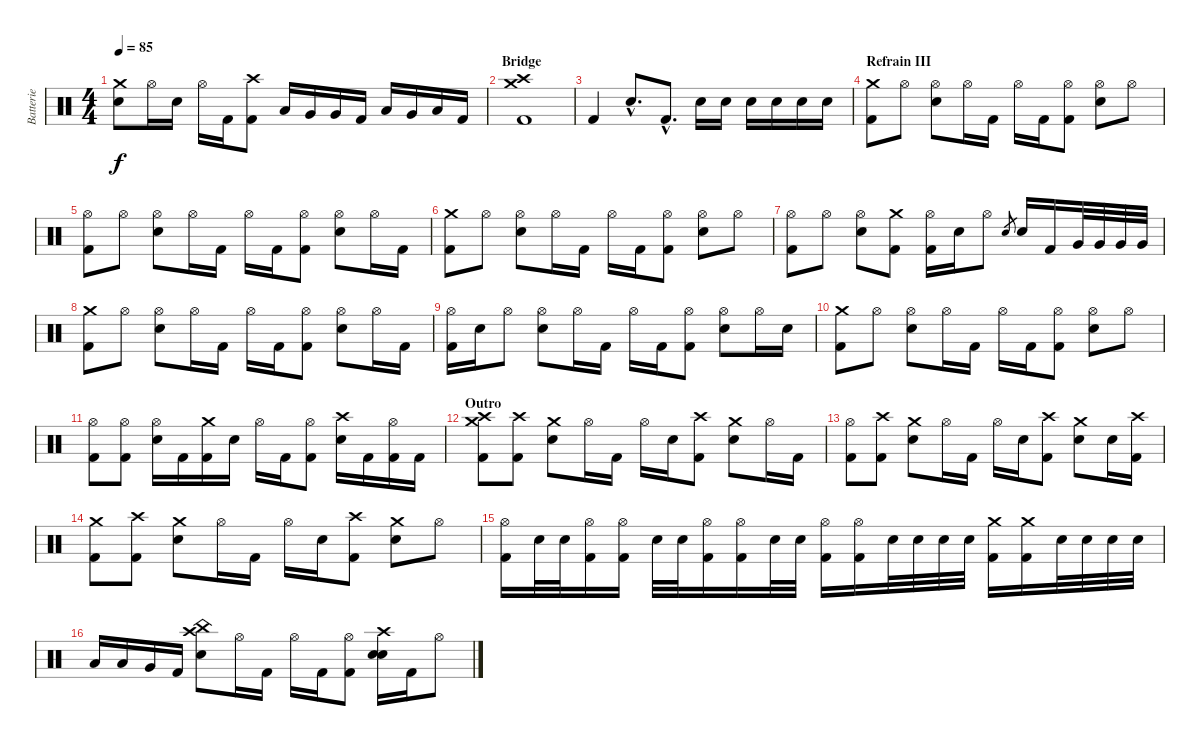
\track ("Batterie" "Batterie") {instrument percussion}
\staff {score}
\articulation defaults
\ts (4 4)
\tempo 85
\clef neutral
\ks c
("Crash medium (hit)" "Electric Snare (hit)").8{dy f} "Hi-Hat (open)".16 "Electric Snare (hit)".16 "Hi-Hat (open)".16 "Kick (hit) 2".16 ("Crash high (hit)" "Kick (hit) 2").8 "Low Tom (hit)".16 "Very Low Tom (hit)".16 "Very Low Tom (hit)".16 "Kick (hit) 2".16 "Low Tom (hit)".16 "Very Low Tom (hit)".16 "Low Floor Tom (hit)".16 "Kick (hit) 2".16 |
\section ("" "Bridge")
("Crash medium (hit)" "Crash high (hit)" "Kick (hit) 2").1 |
"Kick (hit) 2".4{volume 5} "Electric Snare (hit)"{hac}.8{d} "Kick (hit) 2"{hac}.8{d} "Electric Snare (hit)".16{volume 13} "Electric Snare (hit)".16 "Electric Snare (hit)".16 "Electric Snare (hit)".16 "Electric Snare (hit)".16 "Electric Snare (hit)".16 |
\section ("" "Refrain III")
("Crash medium (hit)" "Kick (hit) 2").8{volume 13} "Hi-Hat (open)".8 ("Hi-Hat (open)" "Electric Snare (hit)").8 "Hi-Hat (open)".16 "Kick (hit) 2".16 "Hi-Hat (open)".16 "Kick (hit) 2".16 ("Hi-Hat (open)" "Kick (hit) 2").8 ("Hi-Hat (open)" "Electric Snare (hit)").8 "Hi-Hat (open)".8 |
("Hi-Hat (open)" "Kick (hit) 2").8 "Hi-Hat (open)".8 ("Hi-Hat (open)" "Electric Snare (hit)").8 "Hi-Hat (open)".16 "Kick (hit) 2".16 "Hi-Hat (open)".16 "Kick (hit) 2".16 ("Hi-Hat (open)" "Kick (hit) 2").8 ("Hi-Hat (open)" "Electric Snare (hit)").8 "Hi-Hat (open)".16 "Kick (hit) 2".16 |
("Crash medium (hit)" "Kick (hit) 2").8 "Hi-Hat (open)".8 ("Hi-Hat (open)" "Electric Snare (hit)").8 "Hi-Hat (open)".16 "Kick (hit) 2".16 "Hi-Hat (open)".16 "Kick (hit) 2".16 ("Hi-Hat (open)" "Kick (hit) 2").8 ("Hi-Hat (open)" "Electric Snare (hit)").8 "Hi-Hat (open)".8 |
("Hi-Hat (open)" "Kick (hit) 2").8 "Hi-Hat (open)".8 ("Hi-Hat (open)" "Electric Snare (hit)").8 ("Crash medium (hit)" "Kick (hit) 2").8 ("Hi-Hat (open)" "Kick (hit) 2").16 "Electric Snare (hit)".16 "Hi-Hat (open)".8 "Electric Snare (hit)".8{gr} "Electric Snare (hit)".16 "Kick (hit) 2".16 "Very Low Tom (hit)".32 "Very Low Tom (hit)".32 "Very Low Tom (hit)".32 "Very Low Tom (hit)".32 |
("Crash medium (hit)" "Kick (hit) 2").8 "Hi-Hat (open)".8 ("Hi-Hat (open)" "Electric Snare (hit)").8 "Hi-Hat (open)".16 "Kick (hit) 2".16 "Hi-Hat (open)".16 "Kick (hit) 2".16 ("Hi-Hat (open)" "Kick (hit) 2").8 ("Hi-Hat (open)" "Electric Snare (hit)").8 "Hi-Hat (open)".16 "Kick (hit) 2".16 |
("Hi-Hat (open)" "Kick (hit) 2").16 "Electric Snare (hit)".16 "Hi-Hat (open)".8 ("Hi-Hat (open)" "Electric Snare (hit)").8 "Hi-Hat (open)".16 "Kick (hit) 2".16 "Hi-Hat (open)".16 "Kick (hit) 2".16 ("Hi-Hat (open)" "Kick (hit) 2").8 ("Hi-Hat (open)" "Electric Snare (hit)").8 "Hi-Hat (open)".16 "Electric Snare (hit)".16 |
("Crash medium (hit)" "Kick (hit) 2").8 "Hi-Hat (open)".8 ("Hi-Hat (open)" "Electric Snare (hit)").8 "Hi-Hat (open)".16 "Kick (hit) 2".16 "Hi-Hat (open)".16 "Kick (hit) 2".16 ("Hi-Hat (open)" "Kick (hit) 2").8 ("Hi-Hat (open)" "Electric Snare (hit)").8 "Hi-Hat (open)".8 |
("Hi-Hat (open)" "Kick (hit) 2").8 ("Hi-Hat (open)" "Kick (hit) 2").8 ("Hi-Hat (open)" "Electric Snare (hit)").16 "Kick (hit) 2".16 ("Crash medium (hit)" "Kick (hit) 2").16 "Electric Snare (hit)".16 "Hi-Hat (open)".16 "Kick (hit) 2".16 ("Hi-Hat (open)" "Kick (hit) 2").8 ("Crash high (hit)" "Electric Snare (hit)").16 "Kick (hit) 2".16 ("Hi-Hat (open)" "Kick (hit) 2").16 "Kick (hit) 2".16 |
\section ("" "Outro")
("Crash medium (hit)" "Crash high (hit)" "Kick (hit) 2").8 ("Crash high (hit)" "Kick (hit) 2").8 ("Crash medium (hit)" "Electric Snare (hit)").8 "Hi-Hat (open)".16 "Kick (hit) 2".16 "Hi-Hat (open)".16 "Electric Snare (hit)".16 ("Crash high (hit)" "Kick (hit) 2").8 ("Crash medium (hit)" "Electric Snare (hit)").8 "Hi-Hat (open)".16 "Kick (hit) 2".16 |
("Hi-Hat (open)" "Kick (hit) 2").8 ("Crash high (hit)" "Kick (hit) 2").8 ("Crash medium (hit)" "Electric Snare (hit)").8 "Hi-Hat (open)".16 "Kick (hit) 2".16 "Hi-Hat (open)".16 "Electric Snare (hit)".16 ("Crash high (hit)" "Kick (hit) 2").8 ("Crash medium (hit)" "Electric Snare (hit)").8 "Electric Snare (hit)".16 ("Crash high (hit)" "Kick (hit) 2").16 |
("Crash medium (hit)" "Kick (hit) 2").8 ("Crash high (hit)" "Kick (hit) 2").8 ("Crash medium (hit)" "Electric Snare (hit)").8 "Hi-Hat (open)".16 "Kick (hit) 2".16 "Hi-Hat (open)".16 "Electric Snare (hit)".16 ("Crash high (hit)" "Kick (hit) 2").8 ("Crash medium (hit)" "Electric Snare (hit)").8 "Hi-Hat (open)".8 |
("Hi-Hat (open)" "Kick (hit) 2").16 "Electric Snare (hit)".32 "Electric Snare (hit)".32 ("Hi-Hat (open)" "Kick (hit) 2").16 ("Hi-Hat (open)" "Kick (hit) 2").16 "Electric Snare (hit)".32 "Electric Snare (hit)".32 ("Hi-Hat (open)" "Kick (hit) 2").16 ("Hi-Hat (open)" "Kick (hit) 2").16 "Electric Snare (hit)".32 "Electric Snare (hit)".32 ("Hi-Hat (open)" "Kick (hit) 2").16 ("Hi-Hat (open)" "Kick (hit) 2").16 "Electric Snare (hit)".32 "Electric Snare (hit)".32 "Electric Snare (hit)".32 "Electric Snare (hit)".32 ("Crash medium (hit)" "Kick (hit) 2").16 ("Crash medium (hit)" "Kick (hit) 2").16 "Electric Snare (hit)".32 "Electric Snare (hit)".32 "Electric Snare (hit)".32 "Electric Snare (hit)".32 |
"Low Tom (hit)".16 "Low Tom (hit)".16 "Very Low Tom (hit)".16 "Kick (hit) 2".16 ("Crash high (hit)" "China (hit)" "Electric Snare (hit)").8 "Hi-Hat (open)".16 "Kick (hit) 2".16 "Hi-Hat (open)".16 "Kick (hit) 2".16 ("Hi-Hat (open)" "Kick (hit) 2").8 ("Crash high (hit)" "Snare (hit)" "Electric Snare (hit)").16 "Kick (hit) 2".16 "Hi-Hat (open)".8
